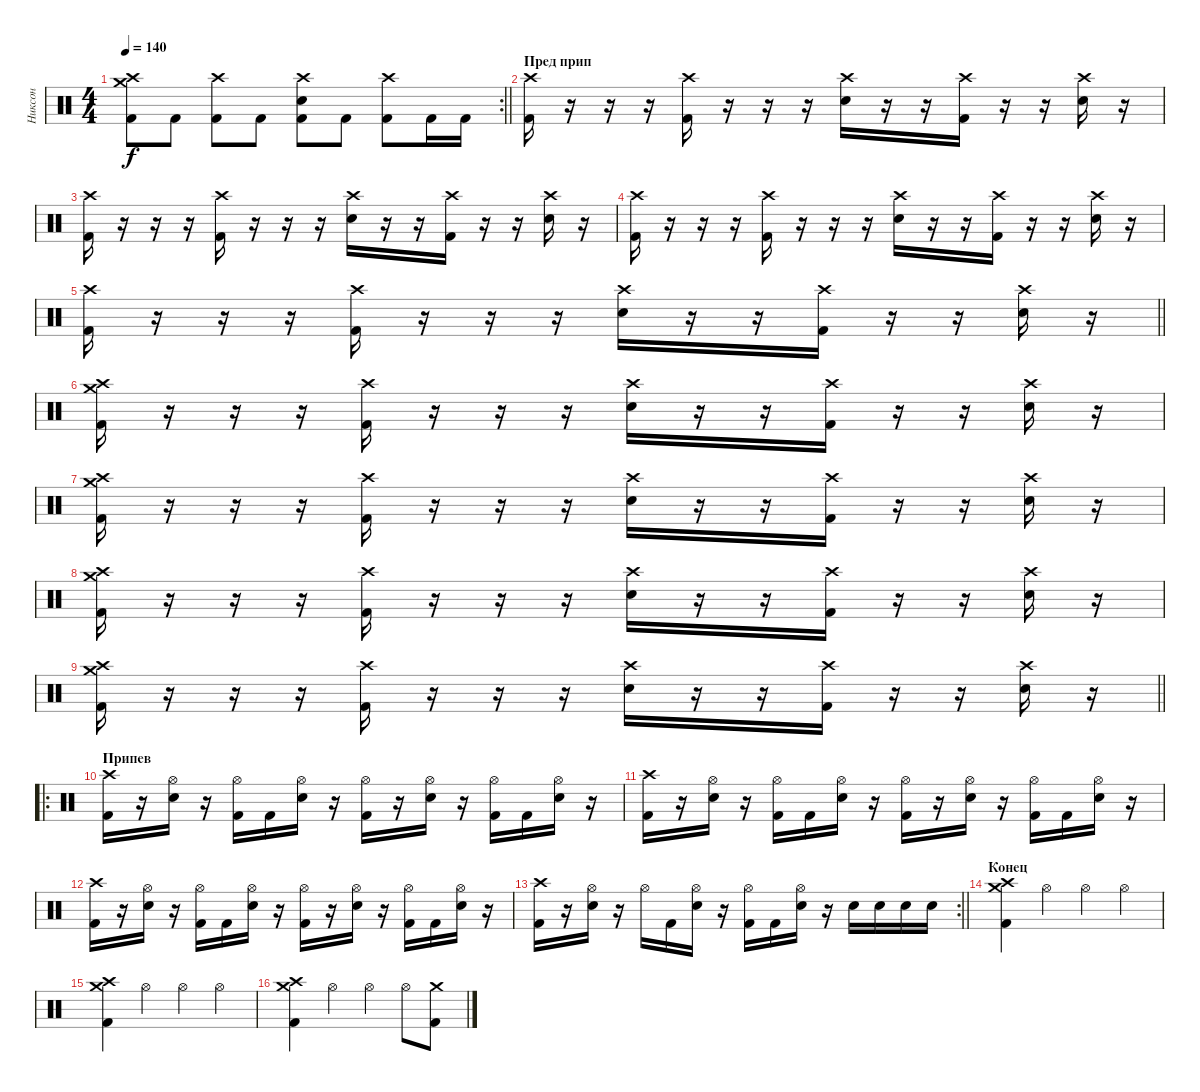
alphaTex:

\track ("Никсон" "Никсон") {instrument percussion}
\staff {score}
\articulation defaults
\rc 2
\ts (4 4)
\tempo 140
\clef neutral
\barLineRight lightlight
\ks c
("Crash medium (hit)" "Crash high (hit)" "Kick (hit) 2").8{dy f} "Kick (hit) 2".8 ("Crash high (hit)" "Kick (hit) 2").8 "Kick (hit) 2".8 ("Crash high (hit)" "Snare (hit) 2" "Kick (hit) 2").8 "Kick (hit) 2".8 ("Crash high (hit)" "Kick (hit) 2").8 "Kick (hit) 2".16 "Kick (hit) 2".16 |
\section ("" "Пред прип")
("Crash high (hit)" "Kick (hit) 2").16 r.16 r.16 r.16 ("Crash high (hit)" "Kick (hit) 2").16 r.16 r.16 r.16 ("Crash high (hit)" "Snare (hit) 2").16 r.16 r.16 ("Crash high (hit)" "Kick (hit) 2").16 r.16 r.16 ("Crash high (hit)" "Snare (hit) 2").16 r.16 |
("Crash high (hit)" "Kick (hit) 2").16 r.16 r.16 r.16 ("Crash high (hit)" "Kick (hit) 2").16 r.16 r.16 r.16 ("Crash high (hit)" "Snare (hit) 2").16 r.16 r.16 ("Crash high (hit)" "Kick (hit) 2").16 r.16 r.16 ("Crash high (hit)" "Snare (hit) 2").16 r.16 |
("Crash high (hit)" "Kick (hit) 2").16 r.16 r.16 r.16 ("Crash high (hit)" "Kick (hit) 2").16 r.16 r.16 r.16 ("Crash high (hit)" "Snare (hit) 2").16 r.16 r.16 ("Crash high (hit)" "Kick (hit) 2").16 r.16 r.16 ("Crash high (hit)" "Snare (hit) 2").16 r.16 |
\barLineRight lightlight
("Crash high (hit)" "Kick (hit) 2").16 r.16 r.16 r.16 ("Crash high (hit)" "Kick (hit) 2").16 r.16 r.16 r.16 ("Crash high (hit)" "Snare (hit) 2").16 r.16 r.16 ("Crash high (hit)" "Kick (hit) 2").16 r.16 r.16 ("Crash high (hit)" "Snare (hit) 2").16 r.16 |
("Crash high (hit)" "Crash medium (hit)" "Kick (hit) 2").16 r.16 r.16 r.16 ("Crash high (hit)" "Kick (hit) 2").16 r.16 r.16 r.16 ("Crash high (hit)" "Snare (hit) 2").16 r.16 r.16 ("Crash high (hit)" "Kick (hit) 2").16 r.16 r.16 ("Crash high (hit)" "Snare (hit) 2").16 r.16 |
("Crash high (hit)" "Crash medium (hit)" "Kick (hit) 2").16 r.16 r.16 r.16 ("Crash high (hit)" "Kick (hit) 2").16 r.16 r.16 r.16 ("Crash high (hit)" "Snare (hit) 2").16 r.16 r.16 ("Crash high (hit)" "Kick (hit) 2").16 r.16 r.16 ("Crash high (hit)" "Snare (hit) 2").16 r.16 |
("Crash high (hit)" "Crash medium (hit)" "Kick (hit) 2").16 r.16 r.16 r.16 ("Crash high (hit)" "Kick (hit) 2").16 r.16 r.16 r.16 ("Crash high (hit)" "Snare (hit) 2").16 r.16 r.16 ("Crash high (hit)" "Kick (hit) 2").16 r.16 r.16 ("Crash high (hit)" "Snare (hit) 2").16 r.16 |
\barLineRight lightlight
("Crash high (hit)" "Crash medium (hit)" "Kick (hit) 2").16 r.16 r.16 r.16 ("Crash high (hit)" "Kick (hit) 2").16 r.16 r.16 r.16 ("Crash high (hit)" "Snare (hit) 2").16 r.16 r.16 ("Crash high (hit)" "Kick (hit) 2").16 r.16 r.16 ("Crash high (hit)" "Snare (hit) 2").16 r.16 |
\ro
\section ("" "Припев")
("Crash high (hit)" "Kick (hit) 2").16 r.16 ("Hi-Hat (open)" "Snare (hit) 2").16 r.16 ("Hi-Hat (open)" "Kick (hit) 2").16 "Kick (hit) 2".16 ("Hi-Hat (open)" "Snare (hit) 2").16 r.16 ("Hi-Hat (open)" "Kick (hit) 2").16 r.16 ("Hi-Hat (open)" "Snare (hit) 2").16 r.16 ("Hi-Hat (open)" "Kick (hit) 2").16 "Kick (hit) 2".16 ("Hi-Hat (open)" "Snare (hit) 2").16 r.16 |
("Crash high (hit)" "Kick (hit) 2").16 r.16 ("Hi-Hat (open)" "Snare (hit) 2").16 r.16 ("Hi-Hat (open)" "Kick (hit) 2").16 "Kick (hit) 2".16 ("Hi-Hat (open)" "Snare (hit) 2").16 r.16 ("Hi-Hat (open)" "Kick (hit) 2").16 r.16 ("Hi-Hat (open)" "Snare (hit) 2").16 r.16 ("Hi-Hat (open)" "Kick (hit) 2").16 "Kick (hit) 2".16 ("Hi-Hat (open)" "Snare (hit) 2").16 r.16 |
("Crash high (hit)" "Kick (hit) 2").16 r.16 ("Hi-Hat (open)" "Snare (hit) 2").16 r.16 ("Hi-Hat (open)" "Kick (hit) 2").16 "Kick (hit) 2".16 ("Hi-Hat (open)" "Snare (hit) 2").16 r.16 ("Hi-Hat (open)" "Kick (hit) 2").16 r.16 ("Hi-Hat (open)" "Snare (hit) 2").16 r.16 ("Hi-Hat (open)" "Kick (hit) 2").16 "Kick (hit) 2".16 ("Hi-Hat (open)" "Snare (hit) 2").16 r.16 |
\rc 2
\barLineRight lightlight
("Crash high (hit)" "Kick (hit) 2").16 r.16 ("Hi-Hat (open)" "Snare (hit) 2").16 r.16 "Hi-Hat (open)".16 "Kick (hit) 2".16 ("Hi-Hat (open)" "Snare (hit) 2").16 r.16 ("Hi-Hat (open)" "Kick (hit) 2").16 "Kick (hit) 2".16 ("Hi-Hat (open)" "Snare (hit) 2").16 r.16 "Snare (hit) 2".16 "Snare (hit) 2".16 "Snare (hit) 2".16 "Snare (hit) 2".16 |
\section ("" "Конец")
("Crash high (hit)" "Crash medium (hit)" "Kick (hit) 2").4 "Hi-Hat (open)".4 "Hi-Hat (open)".4 "Hi-Hat (open)".4 |
("Crash high (hit)" "Crash medium (hit)" "Kick (hit) 2").4 "Hi-Hat (open)".4 "Hi-Hat (open)".4 "Hi-Hat (open)".4 |
("Crash high (hit)" "Crash medium (hit)" "Kick (hit) 2").4 "Hi-Hat (open)".4 "Hi-Hat (open)".4 "Hi-Hat (open)".8 ("Crash medium (hit)" "Kick (hit) 2").8
